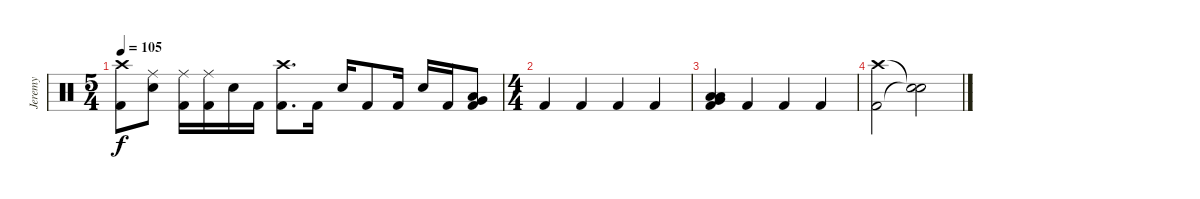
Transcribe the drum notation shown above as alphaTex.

\track ("Jeremy" "Jeremy") {instrument percussion}
\staff {score}
\articulation defaults
\ts (5 4)
\tempo 105
\clef neutral
\ks c
("Crash high (hit)" "Kick (hit) 2").8{dy f} ("Ride (middle)" "Snare (hit) 2").8 ("Ride (middle)" "Kick (hit) 2").16 ("Ride (middle)" "Kick (hit) 2").16 "Snare (hit) 2".16 "Kick (hit) 2".16 ("Crash high (hit)" "Kick (hit) 2").8{d} "Kick (hit) 2".16 "Snare (hit) 2".16 "Kick (hit) 2".8 "Kick (hit) 2".16 "Snare (hit) 2".16 "Kick (hit) 2".16 ("Very Low Tom (hit)" "Low Floor Tom (hit)" "Kick (hit) 2").8 |
\ts (4 4)
"Kick (hit) 2".4 "Kick (hit) 2".4 "Kick (hit) 2".4 "Kick (hit) 2".4 |
("Low Tom (hit)" "Low Floor Tom (hit)" "Very Low Tom (hit)" "Kick (hit) 2").4 "Kick (hit) 2".4 "Kick (hit) 2".4 "Kick (hit) 2".4 |
("Crash high (hit)" "Kick (hit) 2").2 ("Snare (hit)"{t} "Snare (hit)"{t}).2
